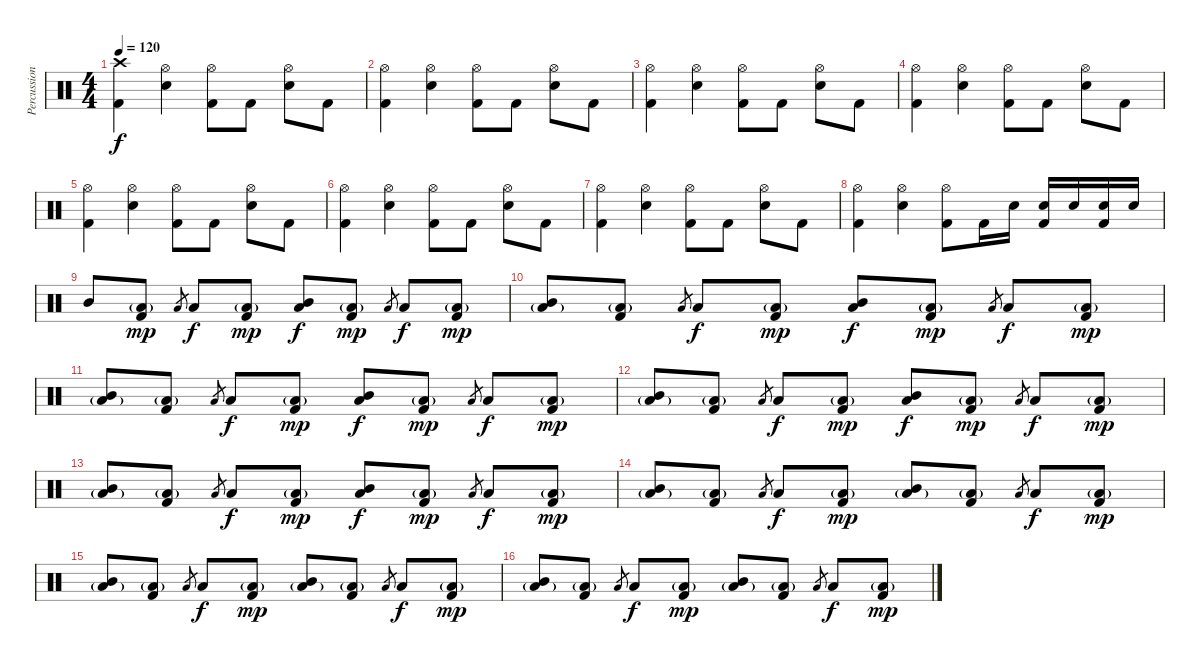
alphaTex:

\track ("Percussion" "Percussion") {instrument percussion}
\staff {score}
\articulation defaults
\ts (4 4)
\tempo 120
\clef neutral
\ks c
("Crash high (hit)" "Kick (hit) 2").4{dy f} ("Hi-Hat (open)" "Snare (hit) 2").4 ("Hi-Hat (open)" "Kick (hit) 2").8 "Kick (hit) 2".8 ("Hi-Hat (open)" "Snare (hit) 2").8 "Kick (hit) 2".8 |
("Hi-Hat (open)" "Kick (hit) 2").4 ("Hi-Hat (open)" "Snare (hit) 2").4 ("Hi-Hat (open)" "Kick (hit) 2").8 "Kick (hit) 2".8 ("Hi-Hat (open)" "Snare (hit) 2").8 "Kick (hit) 2".8 |
("Hi-Hat (open)" "Kick (hit) 2").4 ("Hi-Hat (open)" "Snare (hit) 2").4 ("Hi-Hat (open)" "Kick (hit) 2").8 "Kick (hit) 2".8 ("Hi-Hat (open)" "Snare (hit) 2").8 "Kick (hit) 2".8 |
("Hi-Hat (open)" "Kick (hit) 2").4 ("Hi-Hat (open)" "Snare (hit) 2").4 ("Hi-Hat (open)" "Kick (hit) 2").8 "Kick (hit) 2".8 ("Hi-Hat (open)" "Snare (hit) 2").8 "Kick (hit) 2".8 |
("Hi-Hat (open)" "Kick (hit) 2").4 ("Hi-Hat (open)" "Snare (hit) 2").4 ("Hi-Hat (open)" "Kick (hit) 2").8 "Kick (hit) 2".8 ("Hi-Hat (open)" "Snare (hit) 2").8 "Kick (hit) 2".8 |
("Hi-Hat (open)" "Kick (hit) 2").4 ("Hi-Hat (open)" "Snare (hit) 2").4 ("Hi-Hat (open)" "Kick (hit) 2").8 "Kick (hit) 2".8 ("Hi-Hat (open)" "Snare (hit) 2").8 "Kick (hit) 2".8 |
("Hi-Hat (open)" "Kick (hit) 2").4 ("Hi-Hat (open)" "Snare (hit) 2").4 ("Hi-Hat (open)" "Kick (hit) 2").8 "Kick (hit) 2".8 ("Hi-Hat (open)" "Snare (hit) 2").8 "Kick (hit) 2".8 |
("Hi-Hat (open)" "Kick (hit) 2").4 ("Hi-Hat (open)" "Snare (hit) 2").4 ("Hi-Hat (open)" "Kick (hit) 2").8 "Kick (hit) 2".16 "Snare (hit) 2".16 ("Snare (hit) 2" "Kick (hit) 2").16 "Snare (hit) 2".16 ("Snare (hit) 2" "Kick (hit) 2").16 "Snare (hit) 2".16 |
"Mid Tom (hit)".8 ("Low Floor Tom (hit)"{g} "Kick (hit) 2").8{dy mp} "Low Floor Tom (hit)".8{gr} "Low Floor Tom (hit)".8{dy f} ("Low Floor Tom (hit)"{g} "Kick (hit) 2").8{dy mp} ("Mid Tom (hit)" "Low Floor Tom (hit)").8{dy f} ("Low Floor Tom (hit)"{g} "Kick (hit) 2").8{dy mp} "Low Floor Tom (hit)".8{gr} "Low Floor Tom (hit)".8{dy f} ("Low Floor Tom (hit)"{g} "Kick (hit) 2").8{dy mp} |
("Mid Tom (hit)" "Low Floor Tom (hit)"{g}).8 ("Low Floor Tom (hit)"{g} "Kick (hit) 2").8 "Low Floor Tom (hit)".8{gr} "Low Floor Tom (hit)".8{dy f} ("Low Floor Tom (hit)"{g} "Kick (hit) 2").8{dy mp} ("Mid Tom (hit)" "Low Floor Tom (hit)").8{dy f} ("Low Floor Tom (hit)"{g} "Kick (hit) 2").8{dy mp} "Low Floor Tom (hit)".8{gr} "Low Floor Tom (hit)".8{dy f} ("Low Floor Tom (hit)"{g} "Kick (hit) 2").8{dy mp} |
("Mid Tom (hit)" "Low Floor Tom (hit)"{g}).8 ("Low Floor Tom (hit)"{g} "Kick (hit) 2").8 "Low Floor Tom (hit)".8{gr} "Low Floor Tom (hit)".8{dy f} ("Low Floor Tom (hit)"{g} "Kick (hit) 2").8{dy mp} ("Mid Tom (hit)" "Low Floor Tom (hit)").8{dy f} ("Low Floor Tom (hit)"{g} "Kick (hit) 2").8{dy mp} "Low Floor Tom (hit)".8{gr} "Low Floor Tom (hit)".8{dy f} ("Low Floor Tom (hit)"{g} "Kick (hit) 2").8{dy mp} |
("Mid Tom (hit)" "Low Floor Tom (hit)"{g}).8 ("Low Floor Tom (hit)"{g} "Kick (hit) 2").8 "Low Floor Tom (hit)".8{gr} "Low Floor Tom (hit)".8{dy f} ("Low Floor Tom (hit)"{g} "Kick (hit) 2").8{dy mp} ("Mid Tom (hit)" "Low Floor Tom (hit)").8{dy f} ("Low Floor Tom (hit)"{g} "Kick (hit) 2").8{dy mp} "Low Floor Tom (hit)".8{gr} "Low Floor Tom (hit)".8{dy f} ("Low Floor Tom (hit)"{g} "Kick (hit) 2").8{dy mp} |
("Mid Tom (hit)" "Low Floor Tom (hit)"{g}).8 ("Low Floor Tom (hit)"{g} "Kick (hit) 2").8 "Low Floor Tom (hit)".8{gr} "Low Floor Tom (hit)".8{dy f} ("Low Floor Tom (hit)"{g} "Kick (hit) 2").8{dy mp} ("Mid Tom (hit)" "Low Floor Tom (hit)").8{dy f} ("Low Floor Tom (hit)"{g} "Kick (hit) 2").8{dy mp} "Low Floor Tom (hit)".8{gr} "Low Floor Tom (hit)".8{dy f} ("Low Floor Tom (hit)"{g} "Kick (hit) 2").8{dy mp} |
("Mid Tom (hit)" "Low Floor Tom (hit)"{g}).8 ("Low Floor Tom (hit)"{g} "Kick (hit) 2").8 "Low Floor Tom (hit)".8{gr} "Low Floor Tom (hit)".8{dy f} ("Low Floor Tom (hit)"{g} "Kick (hit) 2").8{dy mp} ("Mid Tom (hit)" "Low Floor Tom (hit)"{g}).8 ("Low Floor Tom (hit)"{g} "Kick (hit) 2").8 "Low Floor Tom (hit)".8{gr} "Low Floor Tom (hit)".8{dy f} ("Low Floor Tom (hit)"{g} "Kick (hit) 2").8{dy mp} |
("Mid Tom (hit)" "Low Floor Tom (hit)"{g}).8 ("Low Floor Tom (hit)"{g} "Kick (hit) 2").8 "Low Floor Tom (hit)".8{gr} "Low Floor Tom (hit)".8{dy f} ("Low Floor Tom (hit)"{g} "Kick (hit) 2").8{dy mp} ("Mid Tom (hit)" "Low Floor Tom (hit)"{g}).8 ("Low Floor Tom (hit)"{g} "Kick (hit) 2").8 "Low Floor Tom (hit)".8{gr} "Low Floor Tom (hit)".8{dy f} ("Low Floor Tom (hit)"{g} "Kick (hit) 2").8{dy mp} |
("Mid Tom (hit)" "Low Floor Tom (hit)"{g}).8 ("Low Floor Tom (hit)"{g} "Kick (hit) 2").8 "Low Floor Tom (hit)".8{gr} "Low Floor Tom (hit)".8{dy f} ("Low Floor Tom (hit)"{g} "Kick (hit) 2").8{dy mp} ("Mid Tom (hit)" "Low Floor Tom (hit)"{g}).8 ("Low Floor Tom (hit)"{g} "Kick (hit) 2").8 "Low Floor Tom (hit)".8{gr} "Low Floor Tom (hit)".8{dy f} ("Low Floor Tom (hit)"{g} "Kick (hit) 2").8{dy mp}
